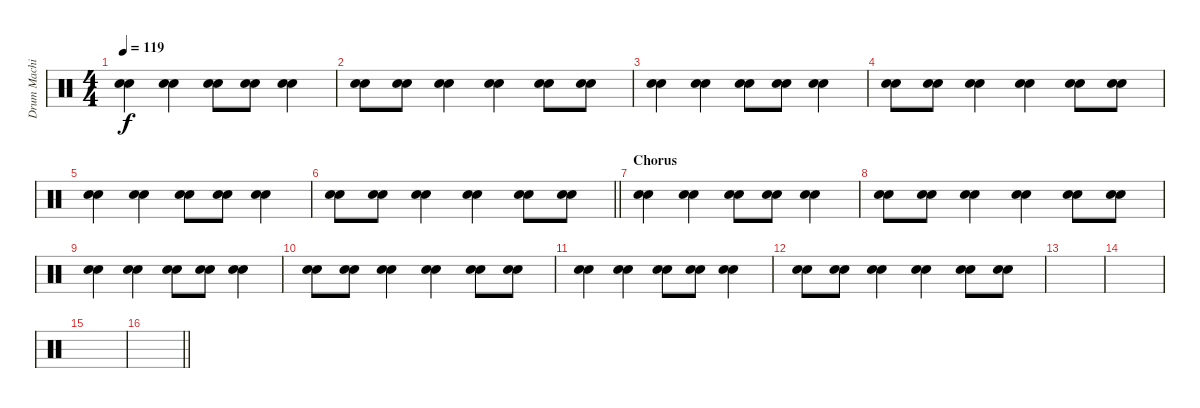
\track ("Drum Machine" "Drum Machi") {instrument percussion}
\staff {score}
\articulation defaults
\ts (4 4)
\tempo 119
\clef neutral
\ks c
("Hand Clap (hit)" "Hand Clap (hit)").4{dy f} ("Hand Clap (hit)" "Hand Clap (hit)").4 ("Hand Clap (hit)" "Hand Clap (hit)").8 ("Hand Clap (hit)" "Hand Clap (hit)").8 ("Hand Clap (hit)" "Hand Clap (hit)").4 |
("Hand Clap (hit)" "Hand Clap (hit)").8 ("Hand Clap (hit)" "Hand Clap (hit)").8 ("Hand Clap (hit)" "Hand Clap (hit)").4 ("Hand Clap (hit)" "Hand Clap (hit)").4 ("Hand Clap (hit)" "Hand Clap (hit)").8 ("Hand Clap (hit)" "Hand Clap (hit)").8 |
("Hand Clap (hit)" "Hand Clap (hit)").4 ("Hand Clap (hit)" "Hand Clap (hit)").4 ("Hand Clap (hit)" "Hand Clap (hit)").8 ("Hand Clap (hit)" "Hand Clap (hit)").8 ("Hand Clap (hit)" "Hand Clap (hit)").4 |
("Hand Clap (hit)" "Hand Clap (hit)").8 ("Hand Clap (hit)" "Hand Clap (hit)").8 ("Hand Clap (hit)" "Hand Clap (hit)").4 ("Hand Clap (hit)" "Hand Clap (hit)").4 ("Hand Clap (hit)" "Hand Clap (hit)").8 ("Hand Clap (hit)" "Hand Clap (hit)").8 |
("Hand Clap (hit)" "Hand Clap (hit)").4 ("Hand Clap (hit)" "Hand Clap (hit)").4 ("Hand Clap (hit)" "Hand Clap (hit)").8 ("Hand Clap (hit)" "Hand Clap (hit)").8 ("Hand Clap (hit)" "Hand Clap (hit)").4 |
\barLineRight lightlight
("Hand Clap (hit)" "Hand Clap (hit)").8 ("Hand Clap (hit)" "Hand Clap (hit)").8 ("Hand Clap (hit)" "Hand Clap (hit)").4 ("Hand Clap (hit)" "Hand Clap (hit)").4 ("Hand Clap (hit)" "Hand Clap (hit)").8 ("Hand Clap (hit)" "Hand Clap (hit)").8 |
\section ("" "Chorus")
("Hand Clap (hit)" "Hand Clap (hit)").4 ("Hand Clap (hit)" "Hand Clap (hit)").4 ("Hand Clap (hit)" "Hand Clap (hit)").8 ("Hand Clap (hit)" "Hand Clap (hit)").8 ("Hand Clap (hit)" "Hand Clap (hit)").4 |
("Hand Clap (hit)" "Hand Clap (hit)").8 ("Hand Clap (hit)" "Hand Clap (hit)").8 ("Hand Clap (hit)" "Hand Clap (hit)").4 ("Hand Clap (hit)" "Hand Clap (hit)").4 ("Hand Clap (hit)" "Hand Clap (hit)").8 ("Hand Clap (hit)" "Hand Clap (hit)").8 |
("Hand Clap (hit)" "Hand Clap (hit)").4 ("Hand Clap (hit)" "Hand Clap (hit)").4 ("Hand Clap (hit)" "Hand Clap (hit)").8 ("Hand Clap (hit)" "Hand Clap (hit)").8 ("Hand Clap (hit)" "Hand Clap (hit)").4 |
("Hand Clap (hit)" "Hand Clap (hit)").8 ("Hand Clap (hit)" "Hand Clap (hit)").8 ("Hand Clap (hit)" "Hand Clap (hit)").4 ("Hand Clap (hit)" "Hand Clap (hit)").4 ("Hand Clap (hit)" "Hand Clap (hit)").8 ("Hand Clap (hit)" "Hand Clap (hit)").8 |
("Hand Clap (hit)" "Hand Clap (hit)").4 ("Hand Clap (hit)" "Hand Clap (hit)").4 ("Hand Clap (hit)" "Hand Clap (hit)").8 ("Hand Clap (hit)" "Hand Clap (hit)").8 ("Hand Clap (hit)" "Hand Clap (hit)").4 |
("Hand Clap (hit)" "Hand Clap (hit)").8 ("Hand Clap (hit)" "Hand Clap (hit)").8 ("Hand Clap (hit)" "Hand Clap (hit)").4 ("Hand Clap (hit)" "Hand Clap (hit)").4 ("Hand Clap (hit)" "Hand Clap (hit)").8 ("Hand Clap (hit)" "Hand Clap (hit)").8 |
|
|
|
\barLineRight lightlight
